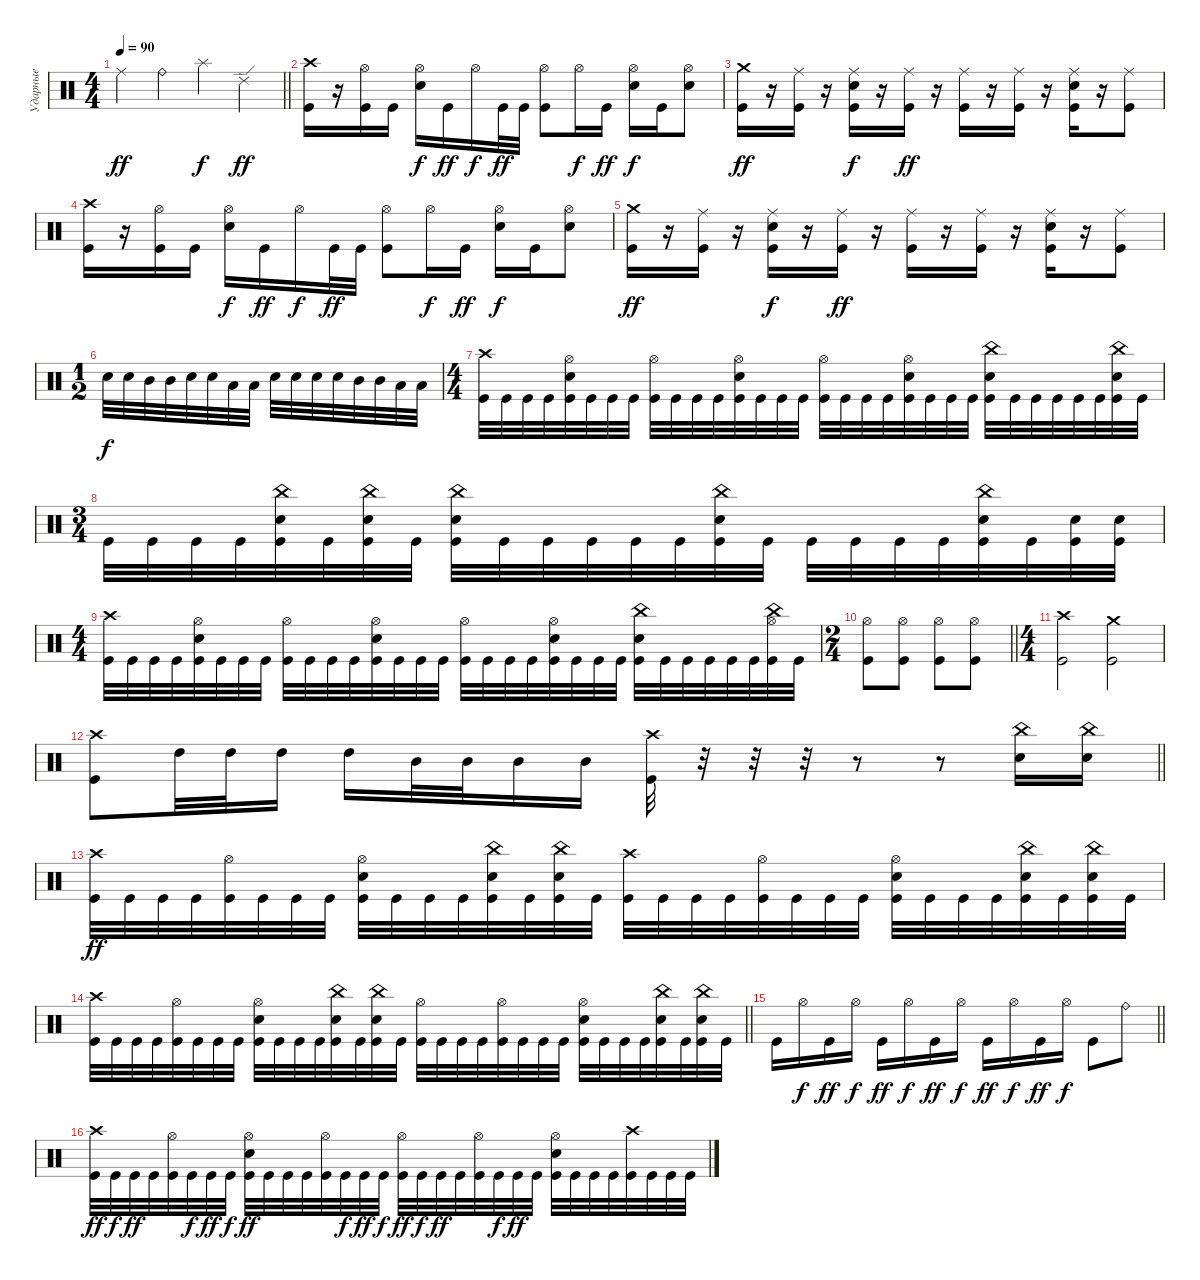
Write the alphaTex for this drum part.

\track ("Ударные" "Ударные") {instrument percussion}
\staff {score}
\articulation defaults
\ts (4 4)
\tempo 90
\clef neutral
\barLineRight lightlight
\ks c "Ride (middle)".4{dy ff} "Ride (bell)".4 "Splash (hit)".4{dy f} "Ride (edge) 2".4{dy ff}
|
("Crash high (hit)" "Kick (hit)").16 r.16 ("Hi-Hat (open)" "Kick (hit)").16 "Kick (hit)".16 ("Hi-Hat (open)" "Electric Snare (hit)").16{dy f} "Kick (hit)".16{dy ff} "Hi-Hat (open)".16{dy f} "Kick (hit)".32{dy ff} "Kick (hit)".32 ("Hi-Hat (open)" "Kick (hit)").8 "Hi-Hat (open)".16{dy f} "Kick (hit)".16{dy ff} ("Electric Snare (hit)" "Hi-Hat (open)").16{dy f} "Kick (hit)".16 ("Hi-Hat (open)" "Electric Snare (hit)").8 |
("Crash medium (hit)" "Kick (hit)").16{dy ff} r.16 ("Ride (middle)" "Kick (hit)").16 r.16 ("Ride (middle)" "Electric Snare (hit)" "Kick (hit)").16{dy f} r.16 ("Ride (middle)" "Kick (hit)").16{dy ff} r.16 ("Ride (middle)" "Kick (hit)").16 r.16 ("Ride (middle)" "Kick (hit)").16 r.16 ("Electric Snare (hit)" "Ride (middle)" "Kick (hit)").16 r.16 ("Ride (middle)" "Kick (hit)").8 |
("Crash high (hit)" "Kick (hit)").16 r.16 ("Hi-Hat (open)" "Kick (hit)").16 "Kick (hit)".16 ("Hi-Hat (open)" "Electric Snare (hit)").16{dy f} "Kick (hit)".16{dy ff} "Hi-Hat (open)".16{dy f} "Kick (hit)".32{dy ff} "Kick (hit)".32 ("Hi-Hat (open)" "Kick (hit)").8 "Hi-Hat (open)".16{dy f} "Kick (hit)".16{dy ff} ("Electric Snare (hit)" "Hi-Hat (open)").16{dy f} "Kick (hit)".16 ("Hi-Hat (open)" "Electric Snare (hit)").8 |
("Crash medium (hit)" "Kick (hit)").16{dy ff} r.16 ("Ride (middle)" "Kick (hit)").16 r.16 ("Ride (middle)" "Electric Snare (hit)" "Kick (hit)").16{dy f} r.16 ("Ride (middle)" "Kick (hit)").16{dy ff} r.16 ("Ride (middle)" "Kick (hit)").16 r.16 ("Ride (middle)" "Kick (hit)").16 r.16 ("Electric Snare (hit)" "Ride (middle)" "Kick (hit)").16 r.16 ("Ride (middle)" "Kick (hit)").8 |
\ts (1 2)
"Electric Snare (hit)".32{dy f} "Electric Snare (hit)".32 "Mid Tom (hit)".32 "Mid Tom (hit)".32 "Electric Snare (hit)".32 "Electric Snare (hit)".32 "Low Tom (hit)".32 "Low Tom (hit)".32 "Electric Snare (hit)".32 "Electric Snare (hit)".32 "Electric Snare (hit)".32 "Electric Snare (hit)".32 "Mid Tom (hit)".32 "Mid Tom (hit)".32 "Low Tom (hit)".32 "Low Tom (hit)".32 |
\ts (4 4)
("Crash high (hit)" "Kick (hit)").32 "Kick (hit)".32 "Kick (hit)".32 "Kick (hit)".32 ("Hi-Hat (open)" "Electric Snare (hit)" "Kick (hit)").32 "Kick (hit)".32 "Kick (hit)".32 "Kick (hit)".32 ("Hi-Hat (open)" "Kick (hit)").32 "Kick (hit)".32 "Kick (hit)".32 "Kick (hit)".32 ("Hi-Hat (open)" "Electric Snare (hit)" "Kick (hit)").32 "Kick (hit)".32 "Kick (hit)".32 "Kick (hit)".32 ("Hi-Hat (open)" "Kick (hit)").32 "Kick (hit)".32 "Kick (hit)".32 "Kick (hit)".32 ("Hi-Hat (open)" "Electric Snare (hit)" "Kick (hit)").32 "Kick (hit)".32 "Kick (hit)".32 "Kick (hit)".32 ("China (hit)" "Electric Snare (hit)" "Kick (hit)").32 "Kick (hit)".32 "Kick (hit)".32 "Kick (hit)".32 "Kick (hit)".32 "Kick (hit)".32 ("Electric Snare (hit)" "China (hit)" "Kick (hit)").32 "Kick (hit)".32 |
\ts (3 4)
"Kick (hit)".32 "Kick (hit)".32 "Kick (hit)".32 "Kick (hit)".32 ("China (hit)" "Electric Snare (hit)" "Kick (hit)").32 "Kick (hit)".32 ("China (hit)" "Electric Snare (hit)" "Kick (hit)").32 "Kick (hit)".32 ("China (hit)" "Electric Snare (hit)" "Kick (hit)").32 "Kick (hit)".32 "Kick (hit)".32 "Kick (hit)".32 "Kick (hit)".32 "Kick (hit)".32 ("China (hit)" "Electric Snare (hit)" "Kick (hit)").32 "Kick (hit)".32 "Kick (hit)".32 "Kick (hit)".32 "Kick (hit)".32 "Kick (hit)".32 ("China (hit)" "Electric Snare (hit)" "Kick (hit)").32 "Kick (hit)".32 ("Electric Snare (hit)" "Kick (hit)").32 ("Electric Snare (hit)" "Kick (hit)").32 |
\ts (4 4)
("Crash high (hit)" "Kick (hit)").32 "Kick (hit)".32 "Kick (hit)".32 "Kick (hit)".32 ("Hi-Hat (open)" "Electric Snare (hit)" "Kick (hit)").32 "Kick (hit)".32 "Kick (hit)".32 "Kick (hit)".32 ("Hi-Hat (open)" "Kick (hit)").32 "Kick (hit)".32 "Kick (hit)".32 "Kick (hit)".32 ("Hi-Hat (open)" "Electric Snare (hit)" "Kick (hit)").32 "Kick (hit)".32 "Kick (hit)".32 "Kick (hit)".32 ("Hi-Hat (open)" "Kick (hit)").32 "Kick (hit)".32 "Kick (hit)".32 "Kick (hit)".32 ("Hi-Hat (open)" "Electric Snare (hit)" "Kick (hit)").32 "Kick (hit)".32 "Kick (hit)".32 "Kick (hit)".32 ("China (hit)" "Electric Snare (hit)" "Kick (hit)").32 "Kick (hit)".32 "Kick (hit)".32 "Kick (hit)".32 "Kick (hit)".32 "Kick (hit)".32 ("China (hit)" "Hi-Hat (open)" "Kick (hit)").32 "Kick (hit)".32 |
\ts (2 4)
\barLineRight lightlight
("Hi-Hat (open)" "Kick (hit)").8 ("Hi-Hat (open)" "Kick (hit)").8 ("Hi-Hat (open)" "Kick (hit)").8 ("Hi-Hat (open)" "Kick (hit)").8 |
\ts (4 4)
("Crash high (hit)" "Kick (hit)").2 ("Crash medium (hit)" "Kick (hit)").2 |
\barLineRight lightlight
("Crash high (hit)" "Kick (hit)").8 "High Tom (hit)".32 "High Tom (hit)".32 "High Tom (hit)".16 "High Tom (hit)".16 "Mid Tom (hit)".32 "Mid Tom (hit)".32 "Mid Tom (hit)".16 "Mid Tom (hit)".16 ("Crash high (hit)" "Kick (hit)").32 r.32 r.32 r.32 r.8 r.8 ("China (hit)" "Electric Snare (hit)").16 ("China (hit)" "Electric Snare (hit)").16 |
("Crash high (hit)" "Kick (hit)").32{dy ff} "Kick (hit)".32 "Kick (hit)".32 "Kick (hit)".32 ("Hi-Hat (open)" "Kick (hit)").32 "Kick (hit)".32 "Kick (hit)".32 "Kick (hit)".32 ("Hi-Hat (open)" "Electric Snare (hit)" "Kick (hit)").32 "Kick (hit)".32 "Kick (hit)".32 "Kick (hit)".32 ("China (hit)" "Electric Snare (hit)" "Kick (hit)").32 "Kick (hit)".32 ("China (hit)" "Electric Snare (hit)" "Kick (hit)").32 "Kick (hit)".32 ("Crash high (hit)" "Kick (hit)").32 "Kick (hit)".32 "Kick (hit)".32 "Kick (hit)".32 ("Hi-Hat (open)" "Kick (hit)").32 "Kick (hit)".32 "Kick (hit)".32 "Kick (hit)".32 ("Hi-Hat (open)" "Electric Snare (hit)" "Kick (hit)").32 "Kick (hit)".32 "Kick (hit)".32 "Kick (hit)".32 ("China (hit)" "Electric Snare (hit)" "Kick (hit)").32 "Kick (hit)".32 ("China (hit)" "Electric Snare (hit)" "Kick (hit)").32 "Kick (hit)".32 |
\barLineRight lightlight
("Crash high (hit)" "Kick (hit)").32 "Kick (hit)".32 "Kick (hit)".32 "Kick (hit)".32 ("Hi-Hat (open)" "Kick (hit)").32 "Kick (hit)".32 "Kick (hit)".32 "Kick (hit)".32 ("Hi-Hat (open)" "Electric Snare (hit)" "Kick (hit)").32 "Kick (hit)".32 "Kick (hit)".32 "Kick (hit)".32 ("China (hit)" "Electric Snare (hit)" "Kick (hit)").32 "Kick (hit)".32 ("China (hit)" "Electric Snare (hit)" "Kick (hit)").32 "Kick (hit)".32 ("Hi-Hat (open)" "Kick (hit)").32 "Kick (hit)".32 "Kick (hit)".32 "Kick (hit)".32 ("Hi-Hat (open)" "Kick (hit)").32 "Kick (hit)".32 "Kick (hit)".32 "Kick (hit)".32 ("Hi-Hat (open)" "Electric Snare (hit)" "Kick (hit)").32 "Kick (hit)".32 "Kick (hit)".32 "Kick (hit)".32 ("China (hit)" "Electric Snare (hit)" "Kick (hit)").32 "Kick (hit)".32 ("China (hit)" "Electric Snare (hit)" "Kick (hit)").32 "Kick (hit)".32 |
\barLineRight lightlight "Kick (hit)".16 "Hi-Hat (open)".16{dy f} "Kick (hit)".16{dy ff} "Hi-Hat (open)".16{dy f} "Kick (hit)".16{dy ff} "Hi-Hat (open)".16{dy f} "Kick (hit)".16{dy ff} "Hi-Hat (open)".16{dy f} "Kick (hit)".16{dy ff} "Hi-Hat (open)".16{dy f} "Kick (hit)".16{dy ff} "Hi-Hat (open)".16{dy f} "Kick (hit)".8 "Ride (bell)".8
|
("Crash high (hit)" "Kick (hit)").32{dy ff} "Kick (hit)".32{dy f} "Kick (hit)".32{dy ff} "Kick (hit)".32 ("Hi-Hat (open)" "Kick (hit)").32 "Kick (hit)".32{dy f} "Kick (hit)".32{dy ff} "Kick (hit)".32{dy f} ("Hi-Hat (open)" "Electric Snare (hit)" "Kick (hit)").32{dy ff} "Kick (hit)".32 "Kick (hit)".32 "Kick (hit)".32 ("Hi-Hat (open)" "Kick (hit)").32 "Kick (hit)".32{dy f} "Kick (hit)".32{dy ff} "Kick (hit)".32{dy f} ("Hi-Hat (open)" "Kick (hit)").32{dy ff} "Kick (hit)".32{dy f} "Kick (hit)".32{dy ff} "Kick (hit)".32 ("Hi-Hat (open)" "Kick (hit)").32 "Kick (hit)".32{dy f} "Kick (hit)".32{dy ff} "Kick (hit)".32 ("Hi-Hat (open)" "Electric Snare (hit)" "Kick (hit)").32 "Kick (hit)".32 "Kick (hit)".32 "Kick (hit)".32 ("Crash high (hit)" "Kick (hit)").32 "Kick (hit)".32 "Kick (hit)".32 "Kick (hit)".32
